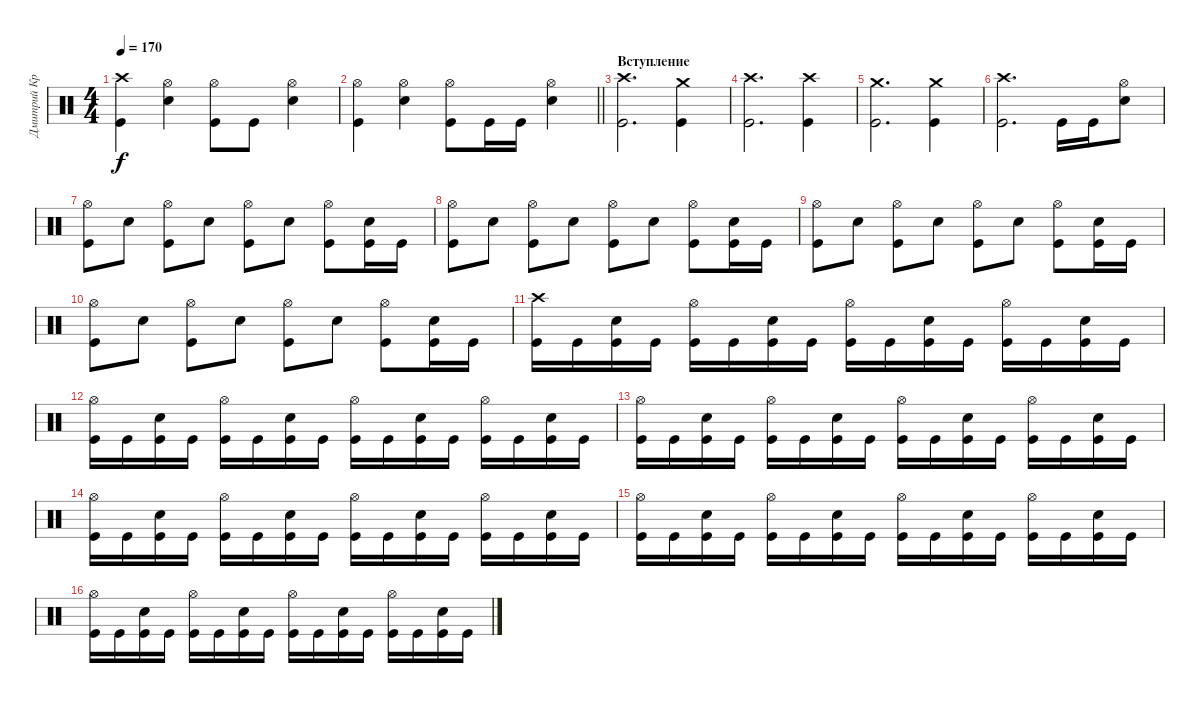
\track ("Дмитрий Кривенков" "Дмитрий Кр") {instrument percussion}
\staff {score}
\articulation defaults
\ts (4 4)
\tempo 170
\clef neutral
\ks c
("Crash high (hit)" "Kick (hit)").4{dy f} ("Hi-Hat (open)" "Snare (hit) 2").4 ("Hi-Hat (open)" "Kick (hit)").8 "Kick (hit)".8 ("Hi-Hat (open)" "Snare (hit) 2").4 |
\barLineRight lightlight
("Hi-Hat (open)" "Kick (hit)").4 ("Hi-Hat (open)" "Snare (hit) 2").4 ("Hi-Hat (open)" "Kick (hit)").8 "Kick (hit)".16 "Kick (hit)".16 ("Hi-Hat (open)" "Snare (hit) 2").4 |
\section ("" "Вступление")
("Crash high (hit)" "Kick (hit)").2{d} ("Crash medium (hit)" "Kick (hit)").4 |
("Crash high (hit)" "Kick (hit)").2{d} ("Crash high (hit)" "Kick (hit)").4 |
("Crash medium (hit)" "Kick (hit)").2{d} ("Crash medium (hit)" "Kick (hit)").4 |
("Crash high (hit)" "Kick (hit)").2{d} "Kick (hit)".16 "Kick (hit)".16 ("Hi-Hat (open)" "Snare (hit) 2").8 |
("Hi-Hat (open)" "Kick (hit)").8 "Snare (hit) 2".8 ("Hi-Hat (open)" "Kick (hit)").8 "Snare (hit) 2".8 ("Hi-Hat (open)" "Kick (hit)").8 "Snare (hit) 2".8 ("Hi-Hat (open)" "Kick (hit)").8 ("Snare (hit) 2" "Kick (hit)").16 "Kick (hit)".16 |
("Hi-Hat (open)" "Kick (hit)").8 "Snare (hit) 2".8 ("Hi-Hat (open)" "Kick (hit)").8 "Snare (hit) 2".8 ("Hi-Hat (open)" "Kick (hit)").8 "Snare (hit) 2".8 ("Hi-Hat (open)" "Kick (hit)").8 ("Snare (hit) 2" "Kick (hit)").16 "Kick (hit)".16 |
("Hi-Hat (open)" "Kick (hit)").8 "Snare (hit) 2".8 ("Hi-Hat (open)" "Kick (hit)").8 "Snare (hit) 2".8 ("Hi-Hat (open)" "Kick (hit)").8 "Snare (hit) 2".8 ("Hi-Hat (open)" "Kick (hit)").8 ("Snare (hit) 2" "Kick (hit)").16 "Kick (hit)".16 |
("Hi-Hat (open)" "Kick (hit)").8 "Snare (hit) 2".8 ("Hi-Hat (open)" "Kick (hit)").8 "Snare (hit) 2".8 ("Hi-Hat (open)" "Kick (hit)").8 "Snare (hit) 2".8 ("Hi-Hat (open)" "Kick (hit)").8 ("Snare (hit) 2" "Kick (hit)").16 "Kick (hit)".16 |
("Crash high (hit)" "Kick (hit)").16 "Kick (hit)".16 ("Snare (hit) 2" "Kick (hit)").16 "Kick (hit)".16 ("Hi-Hat (open)" "Kick (hit)").16 "Kick (hit)".16 ("Snare (hit) 2" "Kick (hit)").16 "Kick (hit)".16 ("Hi-Hat (open)" "Kick (hit)").16 "Kick (hit)".16 ("Snare (hit) 2" "Kick (hit)").16 "Kick (hit)".16 ("Hi-Hat (open)" "Kick (hit)").16 "Kick (hit)".16 ("Snare (hit) 2" "Kick (hit)").16 "Kick (hit)".16 |
("Hi-Hat (open)" "Kick (hit)").16 "Kick (hit)".16 ("Snare (hit) 2" "Kick (hit)").16 "Kick (hit)".16 ("Hi-Hat (open)" "Kick (hit)").16 "Kick (hit)".16 ("Snare (hit) 2" "Kick (hit)").16 "Kick (hit)".16 ("Hi-Hat (open)" "Kick (hit)").16 "Kick (hit)".16 ("Snare (hit) 2" "Kick (hit)").16 "Kick (hit)".16 ("Hi-Hat (open)" "Kick (hit)").16 "Kick (hit)".16 ("Snare (hit) 2" "Kick (hit)").16 "Kick (hit)".16 |
("Hi-Hat (open)" "Kick (hit)").16 "Kick (hit)".16 ("Snare (hit) 2" "Kick (hit)").16 "Kick (hit)".16 ("Hi-Hat (open)" "Kick (hit)").16 "Kick (hit)".16 ("Snare (hit) 2" "Kick (hit)").16 "Kick (hit)".16 ("Hi-Hat (open)" "Kick (hit)").16 "Kick (hit)".16 ("Snare (hit) 2" "Kick (hit)").16 "Kick (hit)".16 ("Hi-Hat (open)" "Kick (hit)").16 "Kick (hit)".16 ("Snare (hit) 2" "Kick (hit)").16 "Kick (hit)".16 |
("Hi-Hat (open)" "Kick (hit)").16 "Kick (hit)".16 ("Snare (hit) 2" "Kick (hit)").16 "Kick (hit)".16 ("Hi-Hat (open)" "Kick (hit)").16 "Kick (hit)".16 ("Snare (hit) 2" "Kick (hit)").16 "Kick (hit)".16 ("Hi-Hat (open)" "Kick (hit)").16 "Kick (hit)".16 ("Snare (hit) 2" "Kick (hit)").16 "Kick (hit)".16 ("Hi-Hat (open)" "Kick (hit)").16 "Kick (hit)".16 ("Snare (hit) 2" "Kick (hit)").16 "Kick (hit)".16 |
("Hi-Hat (open)" "Kick (hit)").16 "Kick (hit)".16 ("Snare (hit) 2" "Kick (hit)").16 "Kick (hit)".16 ("Hi-Hat (open)" "Kick (hit)").16 "Kick (hit)".16 ("Snare (hit) 2" "Kick (hit)").16 "Kick (hit)".16 ("Hi-Hat (open)" "Kick (hit)").16 "Kick (hit)".16 ("Snare (hit) 2" "Kick (hit)").16 "Kick (hit)".16 ("Hi-Hat (open)" "Kick (hit)").16 "Kick (hit)".16 ("Snare (hit) 2" "Kick (hit)").16 "Kick (hit)".16 |
("Hi-Hat (open)" "Kick (hit)").16 "Kick (hit)".16 ("Snare (hit) 2" "Kick (hit)").16 "Kick (hit)".16 ("Hi-Hat (open)" "Kick (hit)").16 "Kick (hit)".16 ("Snare (hit) 2" "Kick (hit)").16 "Kick (hit)".16 ("Hi-Hat (open)" "Kick (hit)").16 "Kick (hit)".16 ("Snare (hit) 2" "Kick (hit)").16 "Kick (hit)".16 ("Hi-Hat (open)" "Kick (hit)").16 "Kick (hit)".16 ("Snare (hit) 2" "Kick (hit)").16 "Kick (hit)".16
